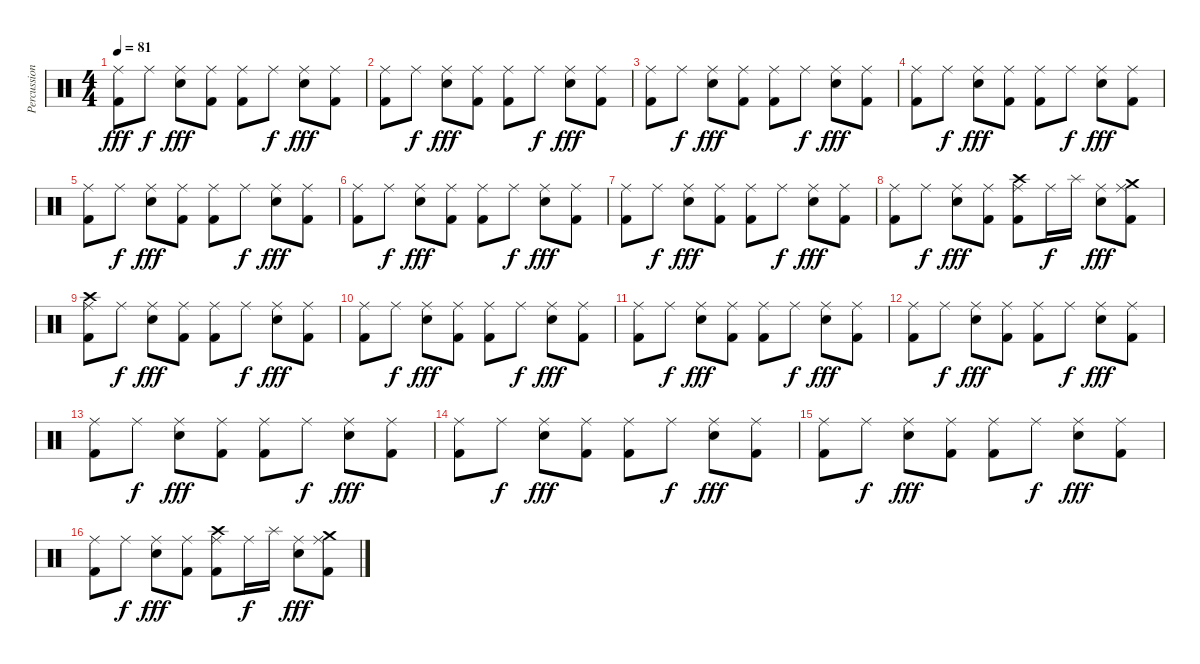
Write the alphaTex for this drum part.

\track ("Percussion" "Percussion") {instrument percussion}
\staff {score}
\articulation defaults
\ts (4 4)
\tempo 81
\clef neutral
\ks c
("Ride (middle)" "Kick (hit) 2").8{dy fff} "Ride (middle)".8{dy f} ("Ride (middle)" "Snare (hit) 2").8{dy fff} ("Ride (middle)" "Kick (hit) 2").8 ("Ride (middle)" "Kick (hit) 2").8 "Ride (middle)".8{dy f} ("Ride (middle)" "Snare (hit) 2").8{dy fff} ("Ride (middle)" "Kick (hit) 2").8 |
("Ride (middle)" "Kick (hit) 2").8 "Ride (middle)".8{dy f} ("Ride (middle)" "Snare (hit) 2").8{dy fff} ("Ride (middle)" "Kick (hit) 2").8 ("Ride (middle)" "Kick (hit) 2").8 "Ride (middle)".8{dy f} ("Ride (middle)" "Snare (hit) 2").8{dy fff} ("Ride (middle)" "Kick (hit) 2").8 |
("Ride (middle)" "Kick (hit) 2").8 "Ride (middle)".8{dy f} ("Ride (middle)" "Snare (hit) 2").8{dy fff} ("Ride (middle)" "Kick (hit) 2").8 ("Ride (middle)" "Kick (hit) 2").8 "Ride (middle)".8{dy f} ("Ride (middle)" "Snare (hit) 2").8{dy fff} ("Ride (middle)" "Kick (hit) 2").8 |
("Ride (middle)" "Kick (hit) 2").8 "Ride (middle)".8{dy f} ("Ride (middle)" "Snare (hit) 2").8{dy fff} ("Ride (middle)" "Kick (hit) 2").8 ("Ride (middle)" "Kick (hit) 2").8 "Ride (middle)".8{dy f} ("Ride (middle)" "Snare (hit) 2").8{dy fff} ("Ride (middle)" "Kick (hit) 2").8 |
("Ride (middle)" "Kick (hit) 2").8 "Ride (middle)".8{dy f} ("Ride (middle)" "Snare (hit) 2").8{dy fff} ("Ride (middle)" "Kick (hit) 2").8 ("Ride (middle)" "Kick (hit) 2").8 "Ride (middle)".8{dy f} ("Ride (middle)" "Snare (hit) 2").8{dy fff} ("Ride (middle)" "Kick (hit) 2").8 |
("Ride (middle)" "Kick (hit) 2").8 "Ride (middle)".8{dy f} ("Ride (middle)" "Snare (hit) 2").8{dy fff} ("Ride (middle)" "Kick (hit) 2").8 ("Ride (middle)" "Kick (hit) 2").8 "Ride (middle)".8{dy f} ("Ride (middle)" "Snare (hit) 2").8{dy fff} ("Ride (middle)" "Kick (hit) 2").8 |
("Ride (middle)" "Kick (hit) 2").8 "Ride (middle)".8{dy f} ("Ride (middle)" "Snare (hit) 2").8{dy fff} ("Ride (middle)" "Kick (hit) 2").8 ("Ride (middle)" "Kick (hit) 2").8 "Ride (middle)".8{dy f} ("Ride (middle)" "Snare (hit) 2").8{dy fff} ("Ride (middle)" "Kick (hit) 2").8 |
("Ride (middle)" "Kick (hit) 2").8 "Ride (middle)".8{dy f} ("Ride (middle)" "Snare (hit) 2").8{dy fff} ("Ride (middle)" "Kick (hit) 2").8 ("Crash high (hit)" "Ride (middle)" "Kick (hit) 2").8 "Ride (middle)".16{dy f} "Splash (hit)".16 ("Ride (middle)" "Snare (hit) 2").8{dy fff} ("Crash medium (hit)" "Ride (middle)" "Kick (hit) 2").8 |
("Crash high (hit)" "Ride (middle)" "Kick (hit) 2").8{volume 13} "Ride (middle)".8{dy f} ("Ride (middle)" "Snare (hit) 2").8{dy fff} ("Ride (middle)" "Kick (hit) 2").8 ("Ride (middle)" "Kick (hit) 2").8 "Ride (middle)".8{dy f} ("Ride (middle)" "Snare (hit) 2").8{dy fff} ("Ride (middle)" "Kick (hit) 2").8 |
("Ride (middle)" "Kick (hit) 2").8{volume 12} "Ride (middle)".8{dy f} ("Ride (middle)" "Snare (hit) 2").8{dy fff} ("Ride (middle)" "Kick (hit) 2").8 ("Ride (middle)" "Kick (hit) 2").8 "Ride (middle)".8{dy f} ("Ride (middle)" "Snare (hit) 2").8{dy fff} ("Ride (middle)" "Kick (hit) 2").8 |
("Ride (middle)" "Kick (hit) 2").8{volume 11} "Ride (middle)".8{dy f} ("Ride (middle)" "Snare (hit) 2").8{dy fff} ("Ride (middle)" "Kick (hit) 2").8 ("Ride (middle)" "Kick (hit) 2").8 "Ride (middle)".8{dy f} ("Ride (middle)" "Snare (hit) 2").8{dy fff} ("Ride (middle)" "Kick (hit) 2").8 |
("Ride (middle)" "Kick (hit) 2").8{volume 10} "Ride (middle)".8{dy f} ("Ride (middle)" "Snare (hit) 2").8{dy fff} ("Ride (middle)" "Kick (hit) 2").8 ("Ride (middle)" "Kick (hit) 2").8 "Ride (middle)".8{dy f} ("Ride (middle)" "Snare (hit) 2").8{dy fff} ("Ride (middle)" "Kick (hit) 2").8 |
("Ride (middle)" "Kick (hit) 2").8{volume 9} "Ride (middle)".8{dy f} ("Ride (middle)" "Snare (hit) 2").8{dy fff} ("Ride (middle)" "Kick (hit) 2").8 ("Ride (middle)" "Kick (hit) 2").8 "Ride (middle)".8{dy f} ("Ride (middle)" "Snare (hit) 2").8{dy fff} ("Ride (middle)" "Kick (hit) 2").8 |
("Ride (middle)" "Kick (hit) 2").8{volume 8} "Ride (middle)".8{dy f} ("Ride (middle)" "Snare (hit) 2").8{dy fff} ("Ride (middle)" "Kick (hit) 2").8 ("Ride (middle)" "Kick (hit) 2").8 "Ride (middle)".8{dy f} ("Ride (middle)" "Snare (hit) 2").8{dy fff} ("Ride (middle)" "Kick (hit) 2").8 |
("Ride (middle)" "Kick (hit) 2").8{volume 7} "Ride (middle)".8{dy f} ("Ride (middle)" "Snare (hit) 2").8{dy fff} ("Ride (middle)" "Kick (hit) 2").8 ("Ride (middle)" "Kick (hit) 2").8 "Ride (middle)".8{dy f} ("Ride (middle)" "Snare (hit) 2").8{dy fff} ("Ride (middle)" "Kick (hit) 2").8 |
("Ride (middle)" "Kick (hit) 2").8{volume 6} "Ride (middle)".8{dy f} ("Ride (middle)" "Snare (hit) 2").8{dy fff} ("Ride (middle)" "Kick (hit) 2").8 ("Crash high (hit)" "Ride (middle)" "Kick (hit) 2").8 "Ride (middle)".16{dy f} "Splash (hit)".16 ("Ride (middle)" "Snare (hit) 2").8{dy fff} ("Crash medium (hit)" "Ride (middle)" "Kick (hit) 2").8
